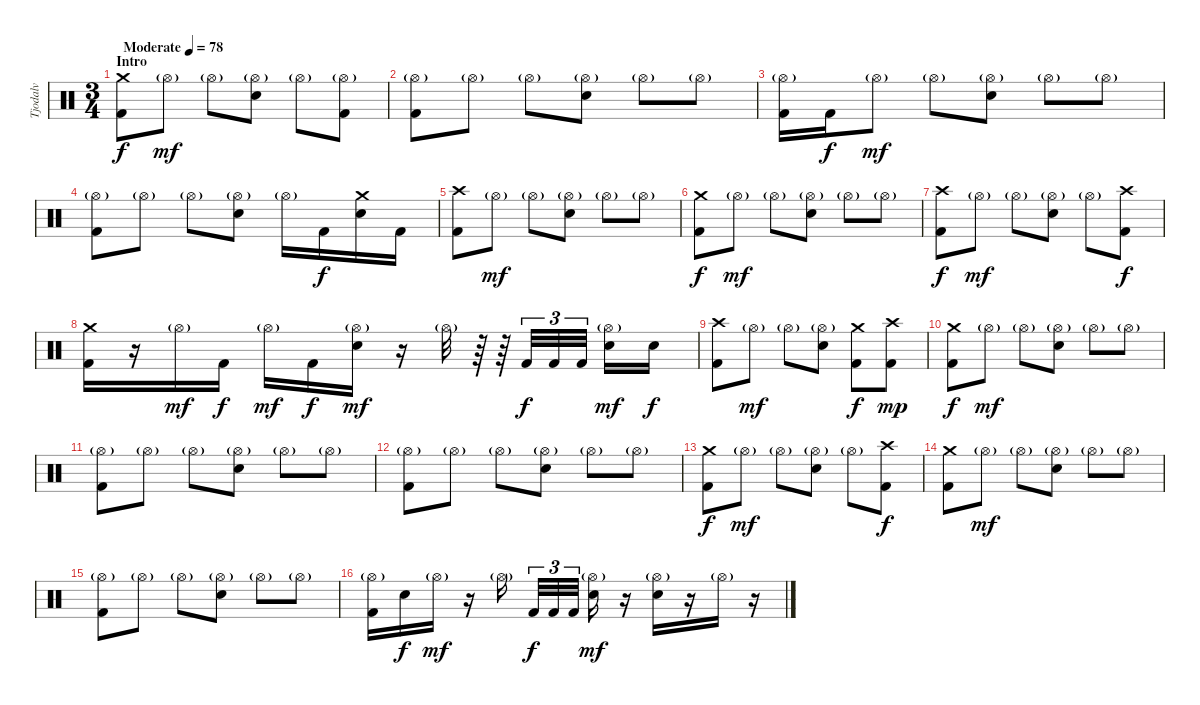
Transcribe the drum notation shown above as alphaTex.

\track ("Tjodalv" "Tjodalv") {instrument percussion}
\staff {score}
\articulation defaults
\ts (3 4)
\section ("" "Intro")
\tempo (78 "Moderate")
\clef neutral
\ks c
("Crash medium (hit)" "Kick (hit) 2").8{dy f} "Hi-Hat (open)"{g}.8{dy mf} "Hi-Hat (open)"{g}.8 ("Hi-Hat (open)"{g} "Electric Snare (hit)").8 "Hi-Hat (open)"{g}.8 ("Hi-Hat (open)"{g} "Kick (hit) 2").8 |
("Hi-Hat (open)"{g} "Kick (hit) 2").8 "Hi-Hat (open)"{g}.8 "Hi-Hat (open)"{g}.8 ("Hi-Hat (open)"{g} "Electric Snare (hit)").8 "Hi-Hat (open)"{g}.8 "Hi-Hat (open)"{g}.8 |
("Hi-Hat (open)"{g} "Kick (hit) 2").16 "Kick (hit) 2".16{dy f} "Hi-Hat (open)"{g}.8{dy mf} "Hi-Hat (open)"{g}.8 ("Hi-Hat (open)"{g} "Electric Snare (hit)").8 "Hi-Hat (open)"{g}.8 "Hi-Hat (open)"{g}.8 |
("Hi-Hat (open)"{g} "Kick (hit) 2").8 "Hi-Hat (open)"{g}.8 "Hi-Hat (open)"{g}.8 ("Hi-Hat (open)"{g} "Electric Snare (hit)").8 "Hi-Hat (open)"{g}.16 "Kick (hit) 2".16{dy f} ("Crash medium (hit)" "Electric Snare (hit)").16 "Kick (hit) 2".16 |
("Crash high (hit)" "Kick (hit) 2").8 "Hi-Hat (open)"{g}.8{dy mf} "Hi-Hat (open)"{g}.8 ("Hi-Hat (open)"{g} "Electric Snare (hit)").8 "Hi-Hat (open)"{g}.8 "Hi-Hat (open)"{g}.8 |
("Crash medium (hit)" "Kick (hit) 2").8{dy f} "Hi-Hat (open)"{g}.8{dy mf} "Hi-Hat (open)"{g}.8 ("Hi-Hat (open)"{g} "Electric Snare (hit)").8 "Hi-Hat (open)"{g}.8 "Hi-Hat (open)"{g}.8 |
("Crash high (hit)" "Kick (hit) 2").8{dy f} "Hi-Hat (open)"{g}.8{dy mf} "Hi-Hat (open)"{g}.8 ("Hi-Hat (open)"{g} "Electric Snare (hit)").8 "Hi-Hat (open)"{g}.8 ("Crash high (hit)" "Kick (hit) 2").8{dy f} |
("Crash medium (hit)" "Kick (hit) 2").16 r.16 "Hi-Hat (open)"{g}.16{dy mf} "Kick (hit) 2".16{dy f} "Hi-Hat (open)"{g}.16{dy mf} "Kick (hit) 2".16{dy f} ("Hi-Hat (open)"{g} "Electric Snare (hit)").16{dy mf} r.16 "Hi-Hat (open)"{g}.32 r.64 r.64 "Kick (hit) 2".32{tu (3 2) dy f} "Kick (hit) 2".32{tu (3 2)} "Kick (hit) 2".32{tu (3 2) beam splitsecondary} ("Hi-Hat (open)"{g} "Electric Snare (hit)").16{dy mf} "Electric Snare (hit)".16{dy f} |
("Crash high (hit)" "Kick (hit) 2").8 "Hi-Hat (open)"{g}.8{dy mf} "Hi-Hat (open)"{g}.8 ("Hi-Hat (open)"{g} "Electric Snare (hit)").8 ("Crash medium (hit)" "Kick (hit) 2").8{dy f} ("Crash high (hit)" "Kick (hit) 2").8{dy mp} |
("Crash medium (hit)" "Kick (hit) 2").8{dy f} "Hi-Hat (open)"{g}.8{dy mf} "Hi-Hat (open)"{g}.8 ("Hi-Hat (open)"{g} "Electric Snare (hit)").8 "Hi-Hat (open)"{g}.8 "Hi-Hat (open)"{g}.8 |
("Hi-Hat (open)"{g} "Kick (hit) 2").8 "Hi-Hat (open)"{g}.8 "Hi-Hat (open)"{g}.8 ("Hi-Hat (open)"{g} "Electric Snare (hit)").8 "Hi-Hat (open)"{g}.8 "Hi-Hat (open)"{g}.8 |
("Hi-Hat (open)"{g} "Kick (hit) 2").8 "Hi-Hat (open)"{g}.8 "Hi-Hat (open)"{g}.8 ("Hi-Hat (open)"{g} "Electric Snare (hit)").8 "Hi-Hat (open)"{g}.8 "Hi-Hat (open)"{g}.8 |
("Crash medium (hit)" "Kick (hit) 2").8{dy f} "Hi-Hat (open)"{g}.8{dy mf} "Hi-Hat (open)"{g}.8 ("Hi-Hat (open)"{g} "Electric Snare (hit)").8 "Hi-Hat (open)"{g}.8 ("Crash high (hit)" "Kick (hit) 2").8{dy f} |
("Crash medium (hit)" "Kick (hit) 2").8 "Hi-Hat (open)"{g}.8{dy mf} "Hi-Hat (open)"{g}.8 ("Hi-Hat (open)"{g} "Electric Snare (hit)").8 "Hi-Hat (open)"{g}.8 "Hi-Hat (open)"{g}.8 |
("Hi-Hat (open)"{g} "Kick (hit) 2").8 "Hi-Hat (open)"{g}.8 "Hi-Hat (open)"{g}.8 ("Hi-Hat (open)"{g} "Electric Snare (hit)").8 "Hi-Hat (open)"{g}.8 "Hi-Hat (open)"{g}.8 |
("Hi-Hat (open)"{g} "Kick (hit) 2").16 "Electric Snare (hit)".16{dy f} "Hi-Hat (open)"{g}.16{dy mf} r.16 "Hi-Hat (open)"{g}.16{beam splitsecondary} "Kick (hit) 2".32{tu (3 2) dy f} "Kick (hit) 2".32{tu (3 2)} "Kick (hit) 2".32{tu (3 2) beam splitsecondary} ("Hi-Hat (open)"{g} "Electric Snare (hit)").16{dy mf} r.16 ("Hi-Hat (open)"{g} "Electric Snare (hit)").16 r.16 "Hi-Hat (open)"{g}.16 r.16
